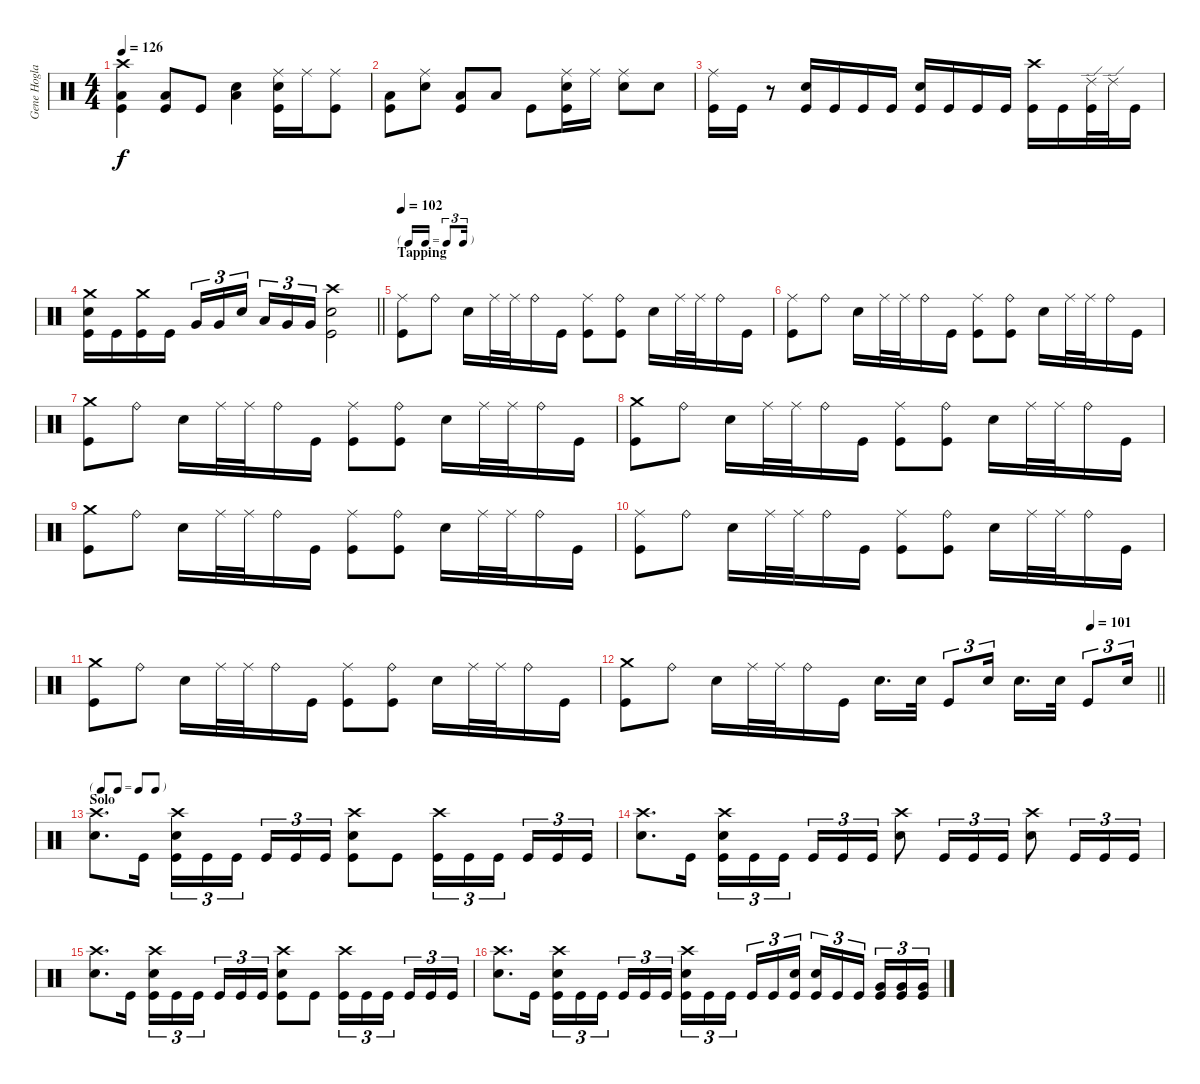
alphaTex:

\track ("Gene Hoglan " "Gene Hogla") {instrument percussion}
\staff {score}
\articulation defaults
\ts (4 4)
\tempo 126
\clef neutral
\ks c
("Crash high (hit)" "Low Floor Tom (hit)" "Kick (hit)").4{dy f} ("Low Floor Tom (hit)" "Kick (hit)").8 "Kick (hit)".8 ("Snare (hit) 2" "Low Floor Tom (hit)").4 ("Ride (middle)" "Snare (hit) 2" "Kick (hit)").16 "Ride (middle)".16 ("Ride (middle)" "Kick (hit)").8 |
("Low Floor Tom (hit)" "Kick (hit)").8 ("Ride (middle)" "Snare (hit) 2").8 ("Low Floor Tom (hit)" "Kick (hit)").8 "Low Floor Tom (hit)".8 "Kick (hit)".8 ("Ride (middle)" "Snare (hit) 2" "Kick (hit)").16 "Ride (middle)".16 ("Ride (middle)" "Snare (hit) 2").8 "Snare (hit) 2".8 |
("Ride (middle)" "Kick (hit)").16 "Kick (hit)".16 r.8 ("Snare (hit) 2" "Kick (hit)").16 "Kick (hit)".16 "Kick (hit)".16 "Kick (hit)".16 ("Snare (hit) 2" "Kick (hit)").16 "Kick (hit)".16 "Kick (hit)".16 "Kick (hit)".16 ("Crash high (hit)" "Kick (hit)").16 "Kick (hit)".16 ("Ride (edge) 2" "Kick (hit)").32 "Ride (edge) 2".32 "Kick (hit)".16 |
\barLineRight lightlight
("Crash medium (hit)" "Snare (hit) 2" "Kick (hit)").16 "Kick (hit)".16 ("Crash medium (hit)" "Kick (hit)").16 "Kick (hit)".16 "Very Low Tom (hit)".16{tu (3 2)} "Very Low Tom (hit)".16{tu (3 2)} "Snare (hit) 2".16{tu (3 2)} "Low Tom (hit)".16{tu (3 2)} "Very Low Tom (hit)".16{tu (3 2)} "Very Low Tom (hit)".16{tu (3 2)} ("Crash high (hit)" "Snare (hit) 2" "Kick (hit)").2 |
\tf triplet16th
\section ("" "Tapping")
\tempo 102
("Ride (middle)" "Kick (hit)").8 "Ride (bell)".8 "Snare (hit) 2".16 "Ride (middle)".32 "Ride (middle)".32 "Ride (bell)".16 "Kick (hit)".16 ("Ride (middle)" "Kick (hit)").8 ("Ride (bell)" "Kick (hit)").8 "Snare (hit) 2".16 "Ride (middle)".32 "Ride (middle)".32 "Ride (bell)".16 "Kick (hit)".16 |
("Ride (middle)" "Kick (hit)").8 "Ride (bell)".8 "Snare (hit) 2".16 "Ride (middle)".32 "Ride (middle)".32 "Ride (bell)".16 "Kick (hit)".16 ("Ride (middle)" "Kick (hit)").8 ("Ride (bell)" "Kick (hit)").8 "Snare (hit) 2".16 "Ride (middle)".32 "Ride (middle)".32 "Ride (bell)".16 "Kick (hit)".16 |
("Crash medium (hit)" "Kick (hit)").8 "Ride (bell)".8 "Snare (hit) 2".16 "Ride (middle)".32 "Ride (middle)".32 "Ride (bell)".16 "Kick (hit)".16 ("Ride (middle)" "Kick (hit)").8 ("Ride (bell)" "Kick (hit)").8 "Snare (hit) 2".16 "Ride (middle)".32 "Ride (middle)".32 "Ride (bell)".16 "Kick (hit)".16 |
("Crash medium (hit)" "Kick (hit)").8 "Ride (bell)".8 "Snare (hit) 2".16 "Ride (middle)".32 "Ride (middle)".32 "Ride (bell)".16 "Kick (hit)".16 ("Ride (middle)" "Kick (hit)").8 ("Ride (bell)" "Kick (hit)").8 "Snare (hit) 2".16 "Ride (middle)".32 "Ride (middle)".32 "Ride (bell)".16 "Kick (hit)".16 |
("Crash medium (hit)" "Kick (hit)").8 "Ride (bell)".8 "Snare (hit) 2".16 "Ride (middle)".32 "Ride (middle)".32 "Ride (bell)".16 "Kick (hit)".16 ("Ride (middle)" "Kick (hit)").8 ("Ride (bell)" "Kick (hit)").8 "Snare (hit) 2".16 "Ride (middle)".32 "Ride (middle)".32 "Ride (bell)".16 "Kick (hit)".16 |
("Ride (middle)" "Kick (hit)").8 "Ride (bell)".8 "Snare (hit) 2".16 "Ride (middle)".32 "Ride (middle)".32 "Ride (bell)".16 "Kick (hit)".16 ("Ride (middle)" "Kick (hit)").8 ("Ride (bell)" "Kick (hit)").8 "Snare (hit) 2".16 "Ride (middle)".32 "Ride (middle)".32 "Ride (bell)".16 "Kick (hit)".16 |
("Crash medium (hit)" "Kick (hit)").8 "Ride (bell)".8 "Snare (hit) 2".16 "Ride (middle)".32 "Ride (middle)".32 "Ride (bell)".16 "Kick (hit)".16 ("Ride (middle)" "Kick (hit)").8 ("Ride (bell)" "Kick (hit)").8 "Snare (hit) 2".16 "Ride (middle)".32 "Ride (middle)".32 "Ride (bell)".16 "Kick (hit)".16 |
\tempo (101 0.875)
\barLineRight lightlight
("Crash medium (hit)" "Kick (hit)").8 "Ride (bell)".8 "Snare (hit) 2".16 "Ride (middle)".32 "Ride (middle)".32 "Ride (bell)".16 "Kick (hit)".16 "Snare (hit) 2".16{d} "Snare (hit) 2".32 "Kick (hit)".8{tu (3 2)} "Snare (hit) 2".16{tu (3 2)} "Snare (hit) 2".16{d} "Snare (hit) 2".32 "Kick (hit)".8{tu (3 2)} "Snare (hit) 2".16{tu (3 2)} |
\tf none
\section ("" "Solo")
("Crash high (hit)" "Snare (hit) 2").8{d} "Kick (hit)".16 ("Crash high (hit)" "Snare (hit) 2" "Kick (hit)").16{tu (3 2)} "Kick (hit)".16{tu (3 2)} "Kick (hit)".16{tu (3 2)} "Kick (hit)".16{tu (3 2)} "Kick (hit)".16{tu (3 2)} "Kick (hit)".16{tu (3 2)} ("Crash high (hit)" "Snare (hit) 2" "Kick (hit)").8 "Kick (hit)".8 ("Crash high (hit)" "Kick (hit)").16{tu (3 2)} "Kick (hit)".16{tu (3 2)} "Kick (hit)".16{tu (3 2)} "Kick (hit)".16{tu (3 2)} "Kick (hit)".16{tu (3 2)} "Kick (hit)".16{tu (3 2)} |
("Crash high (hit)" "Snare (hit) 2").8{d} "Kick (hit)".16 ("Crash high (hit)" "Snare (hit) 2" "Kick (hit)").16{tu (3 2)} "Kick (hit)".16{tu (3 2)} "Kick (hit)".16{tu (3 2)} "Kick (hit)".16{tu (3 2)} "Kick (hit)".16{tu (3 2)} "Kick (hit)".16{tu (3 2)} ("Crash high (hit)" "Snare (hit) 2").8 "Kick (hit)".16{tu (3 2)} "Kick (hit)".16{tu (3 2)} "Kick (hit)".16{tu (3 2)} ("Crash high (hit)" "Snare (hit) 2").8 "Kick (hit)".16{tu (3 2)} "Kick (hit)".16{tu (3 2)} "Kick (hit)".16{tu (3 2)} |
("Crash high (hit)" "Snare (hit) 2").8{d} "Kick (hit)".16 ("Crash high (hit)" "Snare (hit) 2" "Kick (hit)").16{tu (3 2)} "Kick (hit)".16{tu (3 2)} "Kick (hit)".16{tu (3 2)} "Kick (hit)".16{tu (3 2)} "Kick (hit)".16{tu (3 2)} "Kick (hit)".16{tu (3 2)} ("Crash high (hit)" "Snare (hit) 2" "Kick (hit)").8 "Kick (hit)".8 ("Crash high (hit)" "Kick (hit)").16{tu (3 2)} "Kick (hit)".16{tu (3 2)} "Kick (hit)".16{tu (3 2)} "Kick (hit)".16{tu (3 2)} "Kick (hit)".16{tu (3 2)} "Kick (hit)".16{tu (3 2)} |
("Crash high (hit)" "Snare (hit) 2").8{d} "Kick (hit)".16 ("Crash high (hit)" "Snare (hit) 2" "Kick (hit)").16{tu (3 2)} "Kick (hit)".16{tu (3 2)} "Kick (hit)".16{tu (3 2)} "Kick (hit)".16{tu (3 2)} "Kick (hit)".16{tu (3 2)} "Kick (hit)".16{tu (3 2)} ("Crash high (hit)" "Snare (hit) 2" "Kick (hit)").16{tu (3 2)} "Kick (hit)".16{tu (3 2)} "Kick (hit)".16{tu (3 2)} "Kick (hit)".16{tu (3 2)} "Kick (hit)".16{tu (3 2)} ("Snare (hit) 2" "Kick (hit)").16{tu (3 2)} ("Snare (hit) 2" "Kick (hit)").16{tu (3 2)} "Kick (hit)".16{tu (3 2)} "Kick (hit)".16{tu (3 2)} ("Very Low Tom (hit)" "Kick (hit)").16{tu (3 2)} ("Very Low Tom (hit)" "Kick (hit)").16{tu (3 2)} ("Very Low Tom (hit)" "Kick (hit)").16{tu (3 2)}
